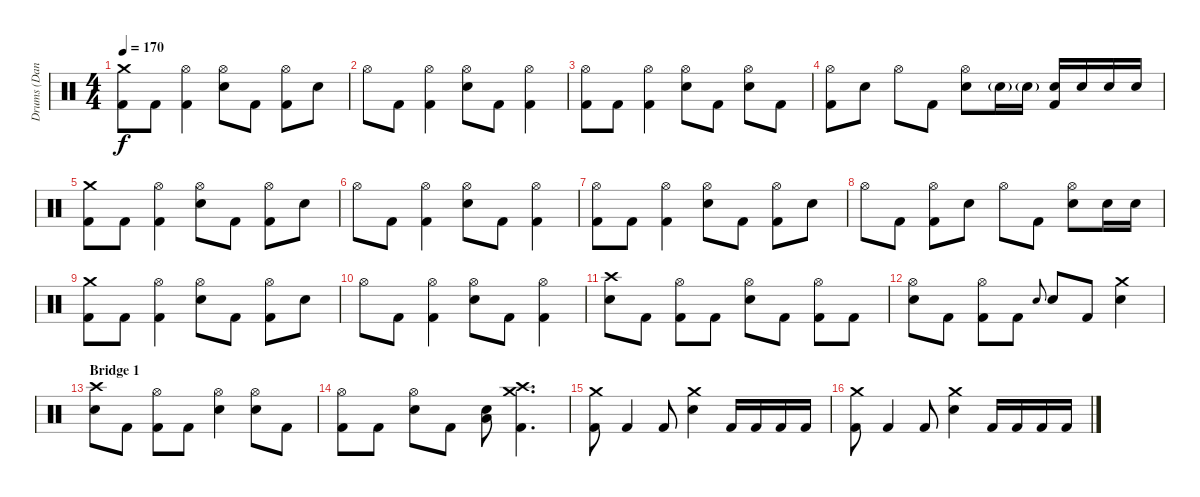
\track ("Drums (Dan Trapp)" "Drums (Dan") {instrument percussion}
\staff {score}
\articulation defaults
\ts (4 4)
\tempo 170
\clef neutral
\ks c
("Kick (hit) 2" "Crash medium (hit)").8{dy f} "Kick (hit) 2".8 ("Kick (hit) 2" "Hi-Hat (open)").4 ("Snare (hit) 2" "Hi-Hat (open)").8 "Kick (hit) 2".8 ("Kick (hit) 2" "Hi-Hat (open)").8 "Snare (hit) 2".8 |
"Hi-Hat (open)".8 "Kick (hit) 2".8 ("Kick (hit) 2" "Hi-Hat (open)").4 ("Snare (hit) 2" "Hi-Hat (open)").8 "Kick (hit) 2".8 ("Kick (hit) 2" "Hi-Hat (open)").4 |
("Kick (hit) 2" "Hi-Hat (open)").8 "Kick (hit) 2".8 ("Kick (hit) 2" "Hi-Hat (open)").4 ("Snare (hit) 2" "Hi-Hat (open)").8 "Kick (hit) 2".8 ("Hi-Hat (open)" "Snare (hit) 2").8 "Kick (hit) 2".8 |
("Kick (hit) 2" "Hi-Hat (open)").8 "Snare (hit) 2".8 "Hi-Hat (open)".8 "Kick (hit) 2".8 ("Snare (hit) 2" "Hi-Hat (open)").8 "Snare (hit) 2"{g}.16 "Snare (hit) 2"{g}.16 ("Snare (hit) 2" "Kick (hit) 2").16 "Snare (hit) 2".16 "Snare (hit) 2".16 "Snare (hit) 2".16 |
("Kick (hit) 2" "Crash medium (hit)").8 "Kick (hit) 2".8 ("Kick (hit) 2" "Hi-Hat (open)").4 ("Snare (hit) 2" "Hi-Hat (open)").8 "Kick (hit) 2".8 ("Kick (hit) 2" "Hi-Hat (open)").8 "Snare (hit) 2".8 |
"Hi-Hat (open)".8 "Kick (hit) 2".8 ("Kick (hit) 2" "Hi-Hat (open)").4 ("Snare (hit) 2" "Hi-Hat (open)").8 "Kick (hit) 2".8 ("Kick (hit) 2" "Hi-Hat (open)").4 |
("Kick (hit) 2" "Hi-Hat (open)").8 "Kick (hit) 2".8 ("Kick (hit) 2" "Hi-Hat (open)").4 ("Snare (hit) 2" "Hi-Hat (open)").8 "Kick (hit) 2".8 ("Kick (hit) 2" "Hi-Hat (open)").8 "Snare (hit) 2".8 |
"Hi-Hat (open)".8 "Kick (hit) 2".8 ("Kick (hit) 2" "Hi-Hat (open)").8 "Snare (hit) 2".8 "Hi-Hat (open)".8 "Kick (hit) 2".8 ("Hi-Hat (open)" "Snare (hit) 2").8 "Snare (hit) 2".16 "Snare (hit) 2".16 |
("Kick (hit) 2" "Crash medium (hit)").8 "Kick (hit) 2".8 ("Kick (hit) 2" "Hi-Hat (open)").4 ("Snare (hit) 2" "Hi-Hat (open)").8 "Kick (hit) 2".8 ("Kick (hit) 2" "Hi-Hat (open)").8 "Snare (hit) 2".8 |
"Hi-Hat (open)".8 "Kick (hit) 2".8 ("Kick (hit) 2" "Hi-Hat (open)").4 ("Snare (hit) 2" "Hi-Hat (open)").8 "Kick (hit) 2".8 ("Kick (hit) 2" "Hi-Hat (open)").4 |
("Snare (hit) 2" "Crash high (hit)").8 "Kick (hit) 2".8 ("Kick (hit) 2" "Hi-Hat (open)").8 "Kick (hit) 2".8 ("Snare (hit) 2" "Hi-Hat (open)").8 "Kick (hit) 2".8 ("Kick (hit) 2" "Hi-Hat (open)").8 "Kick (hit) 2".8 |
("Hi-Hat (open)" "Snare (hit) 2").8 "Kick (hit) 2".8 ("Kick (hit) 2" "Hi-Hat (open)").8 "Kick (hit) 2".8 "Snare (hit)".8{gr onbeat} "Snare (hit) 2".8 "Kick (hit) 2".8 ("Snare (hit) 2" "Crash medium (hit)").4 |
\section ("" "Bridge 1")
("Snare (hit) 2" "Crash high (hit)").8 "Kick (hit) 2".8 ("Hi-Hat (open)" "Kick (hit) 2").8 "Kick (hit) 2".8 ("Snare (hit) 2" "Hi-Hat (open)").4 ("Snare (hit) 2" "Hi-Hat (open)").8 "Kick (hit) 2".8 |
("Kick (hit) 2" "Hi-Hat (open)").8 "Kick (hit) 2".8 ("Snare (hit) 2" "Hi-Hat (open)").8 "Kick (hit) 2".8 ("Snare (hit) 2" "Low Tom (hit)").8 ("Kick (hit) 2" "Crash high (hit)" "Crash medium (hit)").4{d} |
("Kick (hit) 2" "Crash medium (hit)").8 "Kick (hit) 2".4 "Kick (hit) 2".8 ("Snare (hit) 2" "Crash medium (hit)").4 "Kick (hit) 2".16 "Kick (hit) 2".16 "Kick (hit) 2".16 "Kick (hit) 2".16 |
("Kick (hit) 2" "Crash medium (hit)").8 "Kick (hit) 2".4 "Kick (hit) 2".8 ("Snare (hit) 2" "Crash medium (hit)").4 "Kick (hit) 2".16 "Kick (hit) 2".16 "Kick (hit) 2".16 "Kick (hit) 2".16
